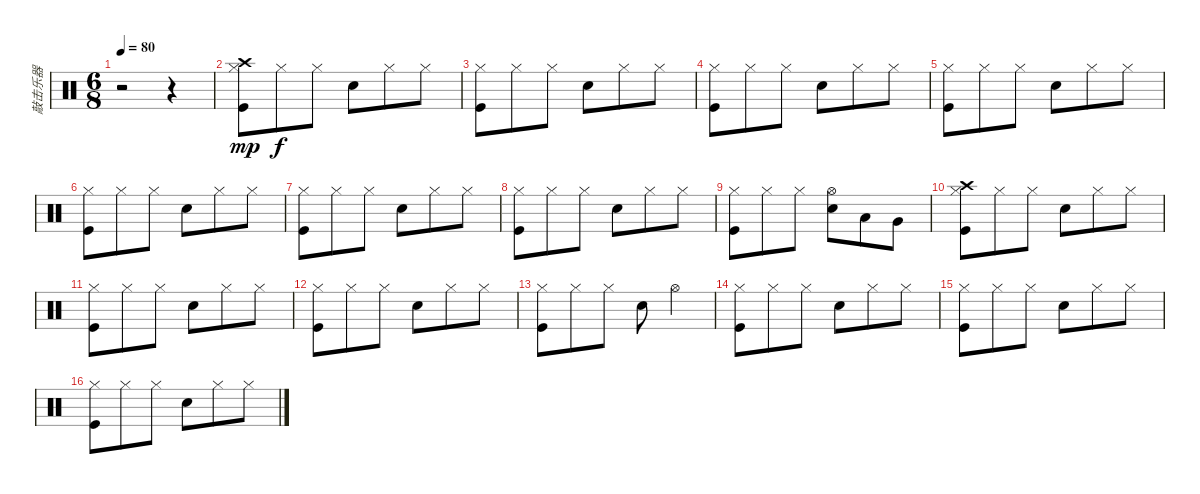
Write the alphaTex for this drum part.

\track ("敲击乐器" "敲击乐器") {instrument percussion}
\staff {score}
\articulation defaults
\ts (6 8)
\tempo 80
\clef neutral
\ks c
r.2{dy mp} r.4 |
("Crash high (hit)" "Hi-Hat (closed)" "Kick (hit)").8 "Hi-Hat (closed)".8{dy f} "Hi-Hat (closed)".8 "Snare (hit) 2".8 "Hi-Hat (closed)".8 "Hi-Hat (closed)".8 |
("Hi-Hat (closed)" "Kick (hit)").8 "Hi-Hat (closed)".8 "Hi-Hat (closed)".8 "Snare (hit) 2".8 "Hi-Hat (closed)".8 "Hi-Hat (closed)".8 |
("Hi-Hat (closed)" "Kick (hit)").8 "Hi-Hat (closed)".8 "Hi-Hat (closed)".8 "Snare (hit) 2".8 "Hi-Hat (closed)".8 "Hi-Hat (closed)".8 |
("Hi-Hat (closed)" "Kick (hit)").8 "Hi-Hat (closed)".8 "Hi-Hat (closed)".8 "Snare (hit) 2".8 "Hi-Hat (closed)".8 "Hi-Hat (closed)".8 |
("Hi-Hat (closed)" "Kick (hit)").8 "Hi-Hat (closed)".8 "Hi-Hat (closed)".8 "Snare (hit) 2".8 "Hi-Hat (closed)".8 "Hi-Hat (closed)".8 |
("Hi-Hat (closed)" "Kick (hit)").8 "Hi-Hat (closed)".8 "Hi-Hat (closed)".8 "Snare (hit) 2".8 "Hi-Hat (closed)".8 "Hi-Hat (closed)".8 |
("Hi-Hat (closed)" "Kick (hit)").8 "Hi-Hat (closed)".8 "Hi-Hat (closed)".8 "Snare (hit) 2".8 "Hi-Hat (closed)".8 "Hi-Hat (closed)".8 |
("Hi-Hat (closed)" "Kick (hit)").8 "Hi-Hat (closed)".8 "Hi-Hat (closed)".8 ("Hi-Hat (open)" "Snare (hit) 2").8 "Low Tom (hit)".8 "Very Low Tom (hit)".8 |
("Crash high (hit)" "Hi-Hat (closed)" "Kick (hit)").8 "Hi-Hat (closed)".8 "Hi-Hat (closed)".8 "Snare (hit) 2".8 "Hi-Hat (closed)".8 "Hi-Hat (closed)".8 |
("Hi-Hat (closed)" "Kick (hit)").8 "Hi-Hat (closed)".8 "Hi-Hat (closed)".8 "Snare (hit) 2".8 "Hi-Hat (closed)".8 "Hi-Hat (closed)".8 |
("Hi-Hat (closed)" "Kick (hit)").8 "Hi-Hat (closed)".8 "Hi-Hat (closed)".8 "Snare (hit) 2".8 "Hi-Hat (closed)".8 "Hi-Hat (closed)".8 |
("Hi-Hat (closed)" "Kick (hit)").8 "Hi-Hat (closed)".8 "Hi-Hat (closed)".8 "Snare (hit) 2".8 "Hi-Hat (open)".4 |
("Hi-Hat (closed)" "Kick (hit)").8 "Hi-Hat (closed)".8 "Hi-Hat (closed)".8 "Snare (hit) 2".8 "Hi-Hat (closed)".8 "Hi-Hat (closed)".8 |
("Hi-Hat (closed)" "Kick (hit)").8 "Hi-Hat (closed)".8 "Hi-Hat (closed)".8 "Snare (hit) 2".8 "Hi-Hat (closed)".8 "Hi-Hat (closed)".8 |
("Hi-Hat (closed)" "Kick (hit)").8 "Hi-Hat (closed)".8 "Hi-Hat (closed)".8 "Snare (hit) 2".8 "Hi-Hat (closed)".8 "Hi-Hat (closed)".8
